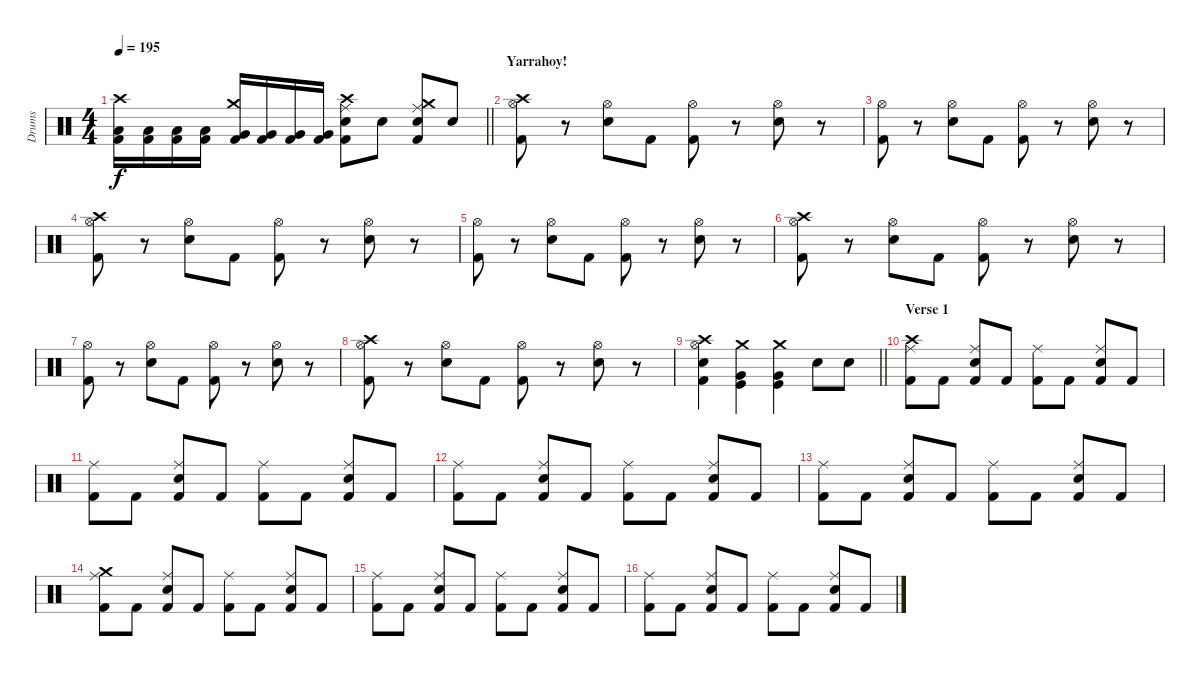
\track ("Drums" "Drums") {instrument percussion}
\staff {score}
\articulation defaults
\ts (4 4)
\tempo 195
\clef neutral
\barLineRight lightlight
\ks c
("Crash high (hit)" "Low Tom (hit)" "Kick (hit) 2").16{dy f} ("Low Tom (hit)" "Kick (hit) 2").16 ("Low Tom (hit)" "Kick (hit) 2").16 ("Low Tom (hit)" "Kick (hit) 2").16 ("Crash medium (hit)" "Very Low Tom (hit)" "Kick (hit) 2").16 ("Very Low Tom (hit)" "Kick (hit) 2").16 ("Very Low Tom (hit)" "Kick (hit) 2").16 ("Very Low Tom (hit)" "Kick (hit) 2").16 ("Crash high (hit)" "Ride (middle)" "Snare (hit) 2" "Kick (hit) 2").8 "Snare (hit) 2".8 ("Crash medium (hit)" "Ride (middle)" "Snare (hit) 2" "Kick (hit) 2").8 "Snare (hit) 2".8 |
\section ("" "Yarrahoy!")
("Crash high (hit)" "Hi-Hat (open)" "Kick (hit) 2").8 r.8 ("Hi-Hat (open)" "Snare (hit) 2").8 "Kick (hit) 2".8 ("Hi-Hat (open)" "Kick (hit) 2").8 r.8 ("Hi-Hat (open)" "Snare (hit) 2").8 r.8 |
("Hi-Hat (open)" "Kick (hit) 2").8 r.8 ("Hi-Hat (open)" "Snare (hit) 2").8 "Kick (hit) 2".8 ("Hi-Hat (open)" "Kick (hit) 2").8 r.8 ("Hi-Hat (open)" "Snare (hit) 2").8 r.8 |
("Crash high (hit)" "Hi-Hat (open)" "Kick (hit) 2").8 r.8 ("Hi-Hat (open)" "Snare (hit) 2").8 "Kick (hit) 2".8 ("Hi-Hat (open)" "Kick (hit) 2").8 r.8 ("Hi-Hat (open)" "Snare (hit) 2").8 r.8 |
("Hi-Hat (open)" "Kick (hit) 2").8 r.8 ("Hi-Hat (open)" "Snare (hit) 2").8 "Kick (hit) 2".8 ("Hi-Hat (open)" "Kick (hit) 2").8 r.8 ("Hi-Hat (open)" "Snare (hit) 2").8 r.8 |
("Crash high (hit)" "Hi-Hat (open)" "Kick (hit) 2").8 r.8 ("Hi-Hat (open)" "Snare (hit) 2").8 "Kick (hit) 2".8 ("Hi-Hat (open)" "Kick (hit) 2").8 r.8 ("Hi-Hat (open)" "Snare (hit) 2").8 r.8 |
("Hi-Hat (open)" "Kick (hit) 2").8 r.8 ("Hi-Hat (open)" "Snare (hit) 2").8 "Kick (hit) 2".8 ("Hi-Hat (open)" "Kick (hit) 2").8 r.8 ("Hi-Hat (open)" "Snare (hit) 2").8 r.8 |
("Crash high (hit)" "Hi-Hat (open)" "Kick (hit) 2").8 r.8 ("Hi-Hat (open)" "Snare (hit) 2").8 "Kick (hit) 2".8 ("Hi-Hat (open)" "Kick (hit) 2").8 r.8 ("Hi-Hat (open)" "Snare (hit) 2").8 r.8 |
\barLineRight lightlight
("Crash high (hit)" "Hi-Hat (open)" "Snare (hit) 2" "Kick (hit) 2").4 ("Crash medium (hit)" "Very Low Tom (hit)" "Kick (hit)").4 ("Crash medium (hit)" "Very Low Tom (hit)" "Kick (hit)").4 "Snare (hit) 2".8 "Snare (hit) 2".8 |
\section ("" "Verse 1")
("Crash high (hit)" "Ride (middle)" "Kick (hit) 2").8 "Kick (hit) 2".8 ("Ride (middle)" "Snare (hit) 2" "Kick (hit) 2").8 "Kick (hit) 2".8 ("Ride (middle)" "Kick (hit) 2").8 "Kick (hit) 2".8 ("Ride (middle)" "Snare (hit) 2" "Kick (hit) 2").8 "Kick (hit) 2".8 |
("Ride (middle)" "Kick (hit) 2").8 "Kick (hit) 2".8 ("Ride (middle)" "Snare (hit) 2" "Kick (hit) 2").8 "Kick (hit) 2".8 ("Ride (middle)" "Kick (hit) 2").8 "Kick (hit) 2".8 ("Ride (middle)" "Snare (hit) 2" "Kick (hit) 2").8 "Kick (hit) 2".8 |
("Ride (middle)" "Kick (hit) 2").8 "Kick (hit) 2".8 ("Ride (middle)" "Snare (hit) 2" "Kick (hit) 2").8 "Kick (hit) 2".8 ("Ride (middle)" "Kick (hit) 2").8 "Kick (hit) 2".8 ("Ride (middle)" "Snare (hit) 2" "Kick (hit) 2").8 "Kick (hit) 2".8 |
("Ride (middle)" "Kick (hit) 2").8 "Kick (hit) 2".8 ("Ride (middle)" "Snare (hit) 2" "Kick (hit) 2").8 "Kick (hit) 2".8 ("Ride (middle)" "Kick (hit) 2").8 "Kick (hit) 2".8 ("Ride (middle)" "Snare (hit) 2" "Kick (hit) 2").8 "Kick (hit) 2".8 |
("Crash medium (hit)" "Ride (middle)" "Kick (hit) 2").8 "Kick (hit) 2".8 ("Ride (middle)" "Snare (hit) 2" "Kick (hit) 2").8 "Kick (hit) 2".8 ("Ride (middle)" "Kick (hit) 2").8 "Kick (hit) 2".8 ("Ride (middle)" "Snare (hit) 2" "Kick (hit) 2").8 "Kick (hit) 2".8 |
("Ride (middle)" "Kick (hit) 2").8 "Kick (hit) 2".8 ("Ride (middle)" "Snare (hit) 2" "Kick (hit) 2").8 "Kick (hit) 2".8 ("Ride (middle)" "Kick (hit) 2").8 "Kick (hit) 2".8 ("Ride (middle)" "Snare (hit) 2" "Kick (hit) 2").8 "Kick (hit) 2".8 |
("Ride (middle)" "Kick (hit) 2").8 "Kick (hit) 2".8 ("Ride (middle)" "Snare (hit) 2" "Kick (hit) 2").8 "Kick (hit) 2".8 ("Ride (middle)" "Kick (hit) 2").8 "Kick (hit) 2".8 ("Ride (middle)" "Snare (hit) 2" "Kick (hit) 2").8 "Kick (hit) 2".8
